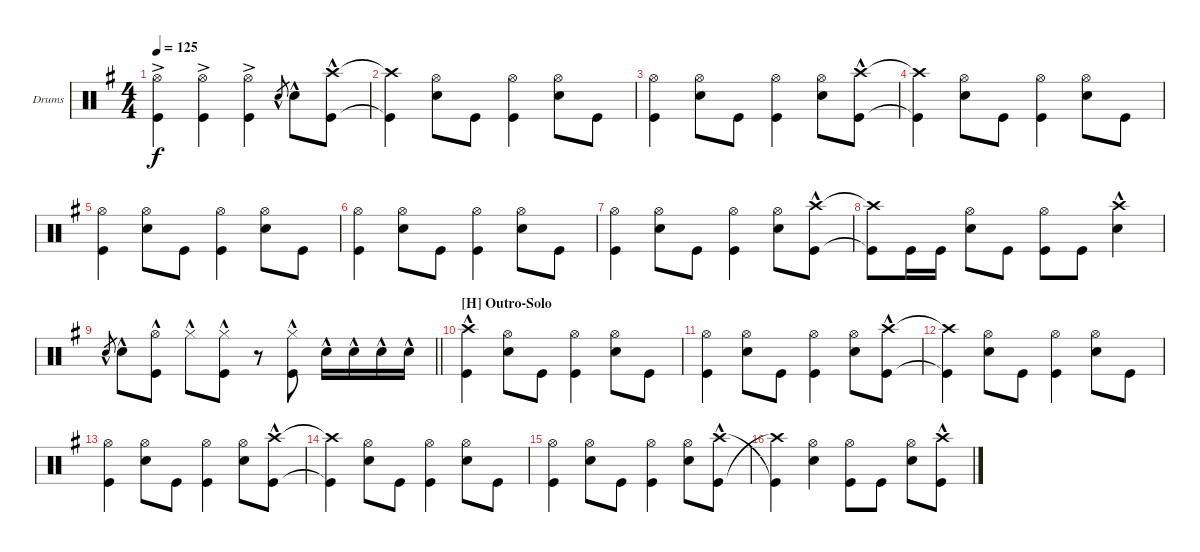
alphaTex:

\defaultSystemsLayout 4
\bracketExtendMode groupsimilarinstruments
\firstSystemTrackNameOrientation horizontal
\otherSystemsTrackNameOrientation horizontal
\track ("Mark Cavarzan Drums" "Drums") {instrument percussion}
\staff {score}
\articulation defaults
\ts (4 4)
\tempo 125
\clef neutral
\ks g
("Kick (hit)"{ac} "Hi-Hat (open)"{ac}).4{dy f} ("Kick (hit)"{ac} "Hi-Hat (open)"{ac}).4 ("Kick (hit)"{ac} "Hi-Hat (open)"{ac}).4 "Snare (hit) 2"{hac}.8{gr} "Snare (hit) 2"{hac}.8 ("Kick (hit)"{hac} "Crash high (hit)"{hac}).8 |
("Kick (hit)"{t} "Crash high (hit)"{t}).4 ("Hi-Hat (open)" "Snare (hit) 2").8 "Kick (hit)".8 ("Kick (hit)" "Hi-Hat (open)").4 ("Hi-Hat (open)" "Snare (hit) 2").8 "Kick (hit)".8 |
("Kick (hit)" "Hi-Hat (open)").4 ("Hi-Hat (open)" "Snare (hit) 2").8 "Kick (hit)".8 ("Kick (hit)" "Hi-Hat (open)").4 ("Hi-Hat (open)" "Snare (hit) 2").8 ("Kick (hit)"{hac} "Crash high (hit)"{hac}).8 |
("Kick (hit)"{t} "Crash high (hit)"{t}).4 ("Hi-Hat (open)" "Snare (hit) 2").8 "Kick (hit)".8 ("Kick (hit)" "Hi-Hat (open)").4 ("Hi-Hat (open)" "Snare (hit) 2").8 "Kick (hit)".8 |
("Kick (hit)" "Hi-Hat (open)").4 ("Hi-Hat (open)" "Snare (hit) 2").8 "Kick (hit)".8 ("Kick (hit)" "Hi-Hat (open)").4 ("Hi-Hat (open)" "Snare (hit) 2").8 "Kick (hit)".8 |
("Kick (hit)" "Hi-Hat (open)").4 ("Hi-Hat (open)" "Snare (hit) 2").8 "Kick (hit)".8 ("Kick (hit)" "Hi-Hat (open)").4 ("Hi-Hat (open)" "Snare (hit) 2").8 "Kick (hit)".8 |
("Kick (hit)" "Hi-Hat (open)").4 ("Hi-Hat (open)" "Snare (hit) 2").8 "Kick (hit)".8 ("Kick (hit)" "Hi-Hat (open)").4 ("Hi-Hat (open)" "Snare (hit) 2").8 ("Kick (hit)"{hac} "Crash high (hit)"{hac}).8 |
("Kick (hit)"{t} "Crash high (hit)"{t}).8 "Kick (hit)".16 "Kick (hit)".16 ("Hi-Hat (open)" "Snare (hit) 2").8 "Kick (hit)".8 ("Kick (hit)" "Hi-Hat (open)").8 "Kick (hit)".8 ("Snare (hit) 2"{hac} "Crash high (hit)"{hac}).4 |
\barLineRight lightlight "Snare (hit) 2"{hac}.8{gr} "Snare (hit) 2"{hac}.8
("Kick (hit)"{hac} "Hi-Hat (open)"{hac}).8 "Hi-Hat (closed)"{hac}.8 ("Hi-Hat (closed)"{hac} "Kick (hit)"{hac}).8 r.8 ("Kick (hit)"{hac} "Hi-Hat (closed)"{hac}).8 "Snare (hit) 2"{hac}.16 "Snare (hit) 2"{hac}.16 "Snare (hit) 2"{hac}.16 "Snare (hit) 2"{hac}.16 |
\section ("H" "Outro-Solo")
("Kick (hit)"{hac} "Crash high (hit)").4 ("Hi-Hat (open)" "Snare (hit) 2").8 "Kick (hit)".8 ("Kick (hit)" "Hi-Hat (open)").4 ("Hi-Hat (open)" "Snare (hit) 2").8 "Kick (hit)".8 |
("Kick (hit)" "Hi-Hat (open)").4 ("Hi-Hat (open)" "Snare (hit) 2").8 "Kick (hit)".8 ("Kick (hit)" "Hi-Hat (open)").4 ("Hi-Hat (open)" "Snare (hit) 2").8 ("Kick (hit)"{hac} "Crash high (hit)"{hac}).8 |
("Kick (hit)"{t} "Crash high (hit)"{t}).4 ("Hi-Hat (open)" "Snare (hit) 2").8 "Kick (hit)".8 ("Kick (hit)" "Hi-Hat (open)").4 ("Hi-Hat (open)" "Snare (hit) 2").8 "Kick (hit)".8 |
("Kick (hit)" "Hi-Hat (open)").4 ("Hi-Hat (open)" "Snare (hit) 2").8 "Kick (hit)".8 ("Kick (hit)" "Hi-Hat (open)").4 ("Hi-Hat (open)" "Snare (hit) 2").8 ("Kick (hit)"{hac} "Crash high (hit)"{hac}).8 |
("Kick (hit)"{t} "Crash high (hit)"{t}).4 ("Hi-Hat (open)" "Snare (hit) 2").8 "Kick (hit)".8 ("Kick (hit)" "Hi-Hat (open)").4 ("Hi-Hat (open)" "Snare (hit) 2").8 "Kick (hit)".8 |
("Kick (hit)" "Hi-Hat (open)").4 ("Hi-Hat (open)" "Snare (hit) 2").8 "Kick (hit)".8 ("Kick (hit)" "Hi-Hat (open)").4 ("Hi-Hat (open)" "Snare (hit) 2").8 ("Kick (hit)"{hac} "Crash high (hit)"{hac}).8 |
("Crash high (hit)"{t} "Kick (hit)"{t}).4 ("Snare (hit) 2" "Hi-Hat (open)").4 ("Hi-Hat (open)" "Kick (hit)").8 "Kick (hit)".8 ("Snare (hit) 2" "Hi-Hat (open)").8 ("Crash high (hit)"{hac} "Kick (hit)"{hac}).8
